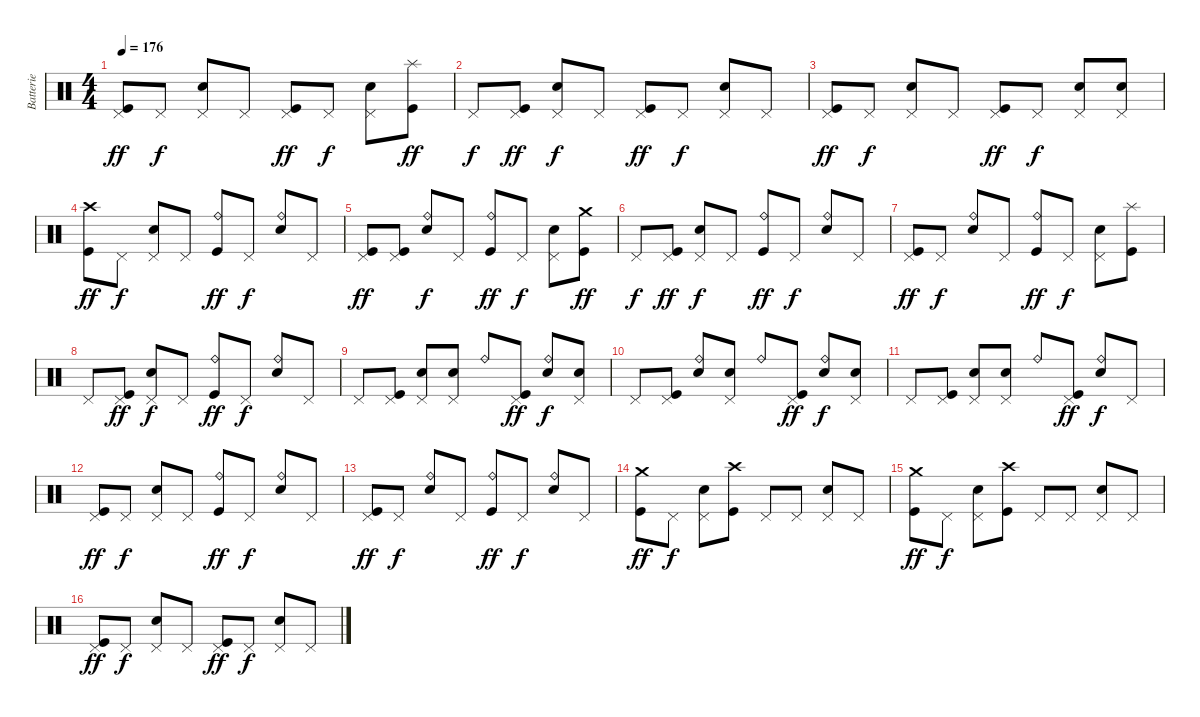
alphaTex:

\track ("Batterie" "Batterie") {instrument percussion}
\staff {score}
\articulation defaults
\ts (4 4)
\tempo 176
\clef neutral
\ks c
("Pedal Hi-Hat (hit)" "Kick (hit)").8{dy ff} "Pedal Hi-Hat (hit)".8{dy f} ("Pedal Hi-Hat (hit)" "Snare (hit) 2").8 "Pedal Hi-Hat (hit)".8 ("Pedal Hi-Hat (hit)" "Kick (hit)").8{dy ff} "Pedal Hi-Hat (hit)".8{dy f} ("Pedal Hi-Hat (hit)" "Snare (hit) 2").8 ("Splash (hit)" "Kick (hit)").8{dy ff} |
"Pedal Hi-Hat (hit)".8{dy f} ("Pedal Hi-Hat (hit)" "Kick (hit)").8{dy ff} ("Pedal Hi-Hat (hit)" "Snare (hit) 2").8{dy f} "Pedal Hi-Hat (hit)".8 ("Pedal Hi-Hat (hit)" "Kick (hit)").8{dy ff} "Pedal Hi-Hat (hit)".8{dy f} ("Pedal Hi-Hat (hit)" "Snare (hit) 2").8 "Pedal Hi-Hat (hit)".8 |
("Pedal Hi-Hat (hit)" "Kick (hit)").8{dy ff} "Pedal Hi-Hat (hit)".8{dy f} ("Pedal Hi-Hat (hit)" "Snare (hit) 2").8 "Pedal Hi-Hat (hit)".8 ("Pedal Hi-Hat (hit)" "Kick (hit)").8{dy ff} "Pedal Hi-Hat (hit)".8{dy f} ("Pedal Hi-Hat (hit)" "Snare (hit) 2").8 ("Pedal Hi-Hat (hit)" "Snare (hit) 2").8 |
("Crash high (hit)" "Kick (hit)").8{dy ff} "Pedal Hi-Hat (hit)".8{dy f} ("Pedal Hi-Hat (hit)" "Snare (hit) 2").8 "Pedal Hi-Hat (hit)".8 ("Ride (bell)" "Kick (hit)").8{dy ff} "Pedal Hi-Hat (hit)".8{dy f} ("Ride (bell)" "Snare (hit) 2").8 "Pedal Hi-Hat (hit)".8 |
("Pedal Hi-Hat (hit)" "Kick (hit)").8{dy ff} ("Pedal Hi-Hat (hit)" "Kick (hit)").8 ("Ride (bell)" "Snare (hit) 2").8{dy f} "Pedal Hi-Hat (hit)".8 ("Ride (bell)" "Kick (hit)").8{dy ff} "Pedal Hi-Hat (hit)".8{dy f} ("Pedal Hi-Hat (hit)" "Snare (hit) 2").8 ("Crash medium (hit)" "Kick (hit)").8{dy ff} |
"Pedal Hi-Hat (hit)".8{dy f} ("Pedal Hi-Hat (hit)" "Kick (hit)").8{dy ff} ("Pedal Hi-Hat (hit)" "Snare (hit) 2").8{dy f} "Pedal Hi-Hat (hit)".8 ("Ride (bell)" "Kick (hit)").8{dy ff} "Pedal Hi-Hat (hit)".8{dy f} ("Ride (bell)" "Snare (hit) 2").8 "Pedal Hi-Hat (hit)".8 |
("Pedal Hi-Hat (hit)" "Kick (hit)").8{dy ff} "Pedal Hi-Hat (hit)".8{dy f} ("Ride (bell)" "Snare (hit) 2").8 "Pedal Hi-Hat (hit)".8 ("Ride (bell)" "Kick (hit)").8{dy ff} "Pedal Hi-Hat (hit)".8{dy f} ("Pedal Hi-Hat (hit)" "Snare (hit) 2").8 ("Splash (hit)" "Kick (hit)").8 |
"Pedal Hi-Hat (hit)".8 ("Pedal Hi-Hat (hit)" "Kick (hit)").8{dy ff} ("Pedal Hi-Hat (hit)" "Snare (hit) 2").8{dy f} "Pedal Hi-Hat (hit)".8 ("Ride (bell)" "Kick (hit)").8{dy ff} "Pedal Hi-Hat (hit)".8{dy f} ("Ride (bell)" "Snare (hit) 2").8 "Pedal Hi-Hat (hit)".8 |
"Pedal Hi-Hat (hit)".8 ("Pedal Hi-Hat (hit)" "Kick (hit)").8 ("Pedal Hi-Hat (hit)" "Snare (hit) 2").8 ("Pedal Hi-Hat (hit)" "Snare (hit) 2").8 "Ride (bell)".8 ("Pedal Hi-Hat (hit)" "Kick (hit)").8{dy ff} ("Ride (bell)" "Snare (hit) 2").8{dy f} ("Pedal Hi-Hat (hit)" "Snare (hit) 2").8 |
"Pedal Hi-Hat (hit)".8 ("Pedal Hi-Hat (hit)" "Kick (hit)").8 ("Ride (bell)" "Snare (hit) 2").8 ("Pedal Hi-Hat (hit)" "Snare (hit) 2").8 "Ride (bell)".8 ("Pedal Hi-Hat (hit)" "Kick (hit)").8{dy ff} ("Ride (bell)" "Snare (hit) 2").8{dy f} ("Pedal Hi-Hat (hit)" "Snare (hit) 2").8 |
"Pedal Hi-Hat (hit)".8 ("Pedal Hi-Hat (hit)" "Kick (hit)").8 ("Pedal Hi-Hat (hit)" "Snare (hit) 2").8 ("Pedal Hi-Hat (hit)" "Snare (hit) 2").8 "Ride (bell)".8 ("Pedal Hi-Hat (hit)" "Kick (hit)").8{dy ff} ("Ride (bell)" "Snare (hit) 2").8{dy f} "Pedal Hi-Hat (hit)".8 |
("Pedal Hi-Hat (hit)" "Kick (hit)").8{dy ff} "Pedal Hi-Hat (hit)".8{dy f} ("Pedal Hi-Hat (hit)" "Snare (hit) 2").8 "Pedal Hi-Hat (hit)".8 ("Ride (bell)" "Kick (hit)").8{dy ff} "Pedal Hi-Hat (hit)".8{dy f} ("Ride (bell)" "Snare (hit) 2").8 "Pedal Hi-Hat (hit)".8 |
("Pedal Hi-Hat (hit)" "Kick (hit)").8{dy ff} "Pedal Hi-Hat (hit)".8{dy f} ("Ride (bell)" "Snare (hit) 2").8 "Pedal Hi-Hat (hit)".8 ("Ride (bell)" "Kick (hit)").8{dy ff} "Pedal Hi-Hat (hit)".8{dy f} ("Ride (bell)" "Snare (hit) 2").8 "Pedal Hi-Hat (hit)".8 |
("Crash medium (hit)" "Kick (hit)").8{dy ff} "Pedal Hi-Hat (hit)".8{dy f} ("Pedal Hi-Hat (hit)" "Snare (hit) 2").8 ("Crash high (hit)" "Kick (hit)").8 "Pedal Hi-Hat (hit)".8 "Pedal Hi-Hat (hit)".8 ("Pedal Hi-Hat (hit)" "Snare (hit) 2").8 "Pedal Hi-Hat (hit)".8 |
("Crash medium (hit)" "Kick (hit)").8{dy ff} "Pedal Hi-Hat (hit)".8{dy f} ("Pedal Hi-Hat (hit)" "Snare (hit) 2").8 ("Crash high (hit)" "Kick (hit)").8 "Pedal Hi-Hat (hit)".8 "Pedal Hi-Hat (hit)".8 ("Pedal Hi-Hat (hit)" "Snare (hit) 2").8 "Pedal Hi-Hat (hit)".8 |
("Pedal Hi-Hat (hit)" "Kick (hit)").8{dy ff} "Pedal Hi-Hat (hit)".8{dy f} ("Pedal Hi-Hat (hit)" "Snare (hit) 2").8 "Pedal Hi-Hat (hit)".8 ("Pedal Hi-Hat (hit)" "Kick (hit)").8{dy ff} "Pedal Hi-Hat (hit)".8{dy f} ("Pedal Hi-Hat (hit)" "Snare (hit) 2").8 "Pedal Hi-Hat (hit)".8
